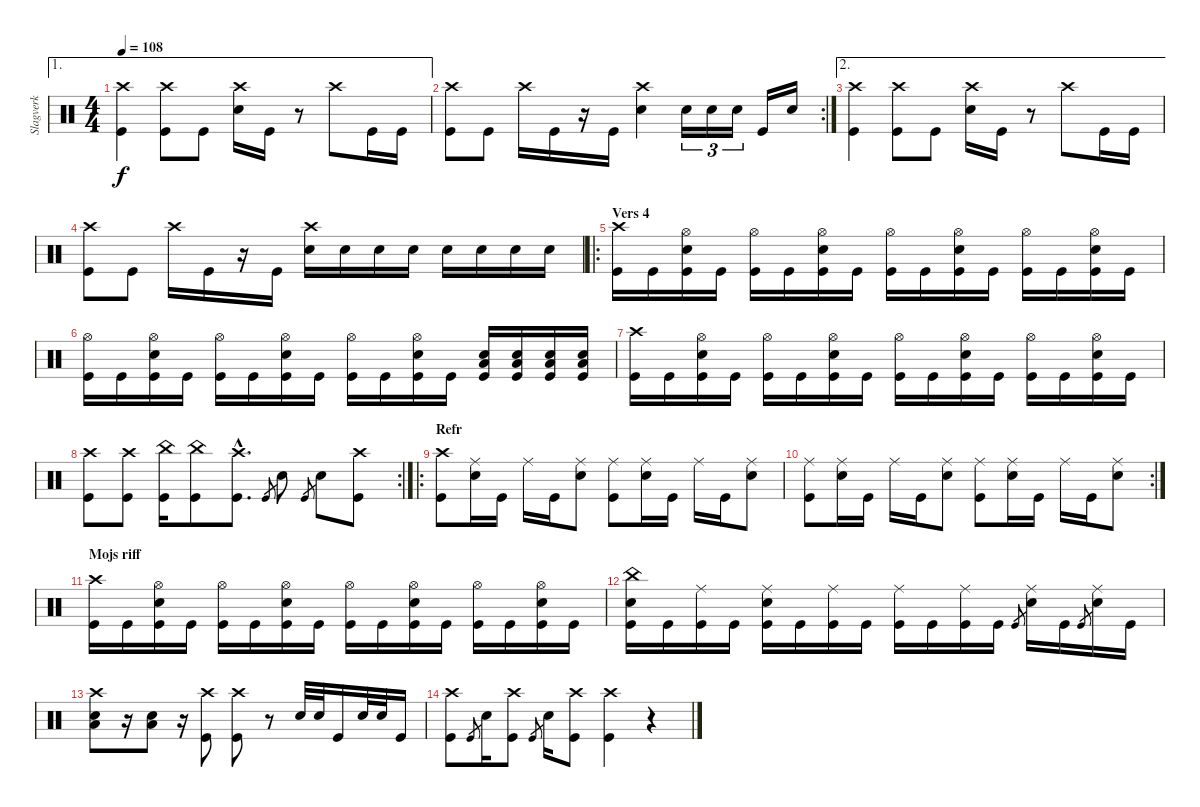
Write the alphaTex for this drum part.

\track ("Slagverk" "Slagverk") {instrument percussion}
\staff {score}
\articulation defaults
\ae 1
\ts (4 4)
\tempo 108
\clef neutral
\ks c
("Crash high (hit)" "Kick (hit)").4{dy f} ("Crash high (hit)" "Kick (hit)").8 "Kick (hit)".8 ("Crash high (hit)" "Electric Snare (hit)").16 "Kick (hit)".16 r.8 "Crash high (hit)".8 "Kick (hit)".16 "Kick (hit)".16 |
\rc 2
("Crash high (hit)" "Kick (hit)").8 "Kick (hit)".8 "Crash high (hit)".16 "Kick (hit)".16 r.16 "Kick (hit)".16 ("Crash high (hit)" "Electric Snare (hit)").4 "Electric Snare (hit)".16{tu (3 2)} "Electric Snare (hit)".16{tu (3 2)} "Electric Snare (hit)".16{tu (3 2)} "Kick (hit)".16 "Electric Snare (hit)".16 |
\ae 2
("Crash high (hit)" "Kick (hit)").4 ("Crash high (hit)" "Kick (hit)").8 "Kick (hit)".8 ("Crash high (hit)" "Electric Snare (hit)").16 "Kick (hit)".16 r.8 "Crash high (hit)".8 "Kick (hit)".16 "Kick (hit)".16 |
("Crash high (hit)" "Kick (hit)").8 "Kick (hit)".8 "Crash high (hit)".16 "Kick (hit)".16 r.16 "Kick (hit)".16 ("Crash high (hit)" "Electric Snare (hit)").16 "Electric Snare (hit)".16 "Electric Snare (hit)".16 "Electric Snare (hit)".16 "Electric Snare (hit)".16 "Electric Snare (hit)".16 "Electric Snare (hit)".16 "Electric Snare (hit)".16 |
\ro
\section ("" "Vers 4")
("Crash high (hit)" "Kick (hit)").16 "Kick (hit)".16 ("Hi-Hat (open)" "Electric Snare (hit)" "Kick (hit)").16 "Kick (hit)".16 ("Hi-Hat (open)" "Kick (hit)").16 "Kick (hit)".16 ("Hi-Hat (open)" "Electric Snare (hit)" "Kick (hit)").16 "Kick (hit)".16 ("Hi-Hat (open)" "Kick (hit)").16 "Kick (hit)".16 ("Hi-Hat (open)" "Electric Snare (hit)" "Kick (hit)").16 "Kick (hit)".16 ("Hi-Hat (open)" "Kick (hit)").16 "Kick (hit)".16 ("Hi-Hat (open)" "Electric Snare (hit)" "Kick (hit)").16 "Kick (hit)".16 |
("Hi-Hat (open)" "Kick (hit)").16 "Kick (hit)".16 ("Hi-Hat (open)" "Electric Snare (hit)" "Kick (hit)").16 "Kick (hit)".16 ("Hi-Hat (open)" "Kick (hit)").16 "Kick (hit)".16 ("Hi-Hat (open)" "Electric Snare (hit)" "Kick (hit)").16 "Kick (hit)".16 ("Hi-Hat (open)" "Kick (hit)").16 "Kick (hit)".16 ("Hi-Hat (open)" "Electric Snare (hit)" "Kick (hit)").16 "Kick (hit)".16 ("Electric Snare (hit)" "Low Floor Tom (hit)" "Kick (hit)").16 ("Electric Snare (hit)" "Low Floor Tom (hit)" "Kick (hit)").16 ("Electric Snare (hit)" "Low Floor Tom (hit)" "Kick (hit)").16 ("Electric Snare (hit)" "Low Floor Tom (hit)" "Kick (hit)").16 |
("Crash high (hit)" "Kick (hit)").16 "Kick (hit)".16 ("Hi-Hat (open)" "Electric Snare (hit)" "Kick (hit)").16 "Kick (hit)".16 ("Hi-Hat (open)" "Kick (hit)").16 "Kick (hit)".16 ("Hi-Hat (open)" "Electric Snare (hit)" "Kick (hit)").16 "Kick (hit)".16 ("Hi-Hat (open)" "Kick (hit)").16 "Kick (hit)".16 ("Hi-Hat (open)" "Electric Snare (hit)" "Kick (hit)").16 "Kick (hit)".16 ("Hi-Hat (open)" "Kick (hit)").16 "Kick (hit)".16 ("Hi-Hat (open)" "Electric Snare (hit)" "Kick (hit)").16 "Kick (hit)".16 |
\rc 2
("Crash high (hit)" "Kick (hit)").8 ("Crash high (hit)" "Kick (hit)").8 ("China (hit)" "Kick (hit)").16 ("China (hit)" "Kick (hit)").8 ("Crash high (hit)"{hac} "Kick (hit)"{hac}).8{d} "Kick (hit)"{sl}.8{gr} "Electric Snare (hit)".8 "Kick (hit)"{sl}.8{gr} "Electric Snare (hit)".8 ("Crash high (hit)" "Kick (hit)").8 |
\ro
\section ("" "Refr")
("Crash high (hit)" "Kick (hit)").8 ("Ride (middle)" "Electric Snare (hit)").16 "Kick (hit)".16 "Ride (middle)".16 "Kick (hit)".16 ("Ride (middle)" "Electric Snare (hit)").8 ("Ride (middle)" "Kick (hit)").8 ("Ride (middle)" "Electric Snare (hit)").16 "Kick (hit)".16 "Ride (middle)".16 "Kick (hit)".16 ("Ride (middle)" "Electric Snare (hit)").8 |
\rc 2
("Ride (middle)" "Kick (hit)").8 ("Ride (middle)" "Electric Snare (hit)").16 "Kick (hit)".16 "Ride (middle)".16 "Kick (hit)".16 ("Ride (middle)" "Electric Snare (hit)").8 ("Ride (middle)" "Kick (hit)").8 ("Ride (middle)" "Electric Snare (hit)").16 "Kick (hit)".16 "Ride (middle)".16 "Kick (hit)".16 ("Ride (middle)" "Electric Snare (hit)").8 |
\section ("" "Mojs riff")
("Crash high (hit)" "Kick (hit)").16 "Kick (hit)".16 ("Hi-Hat (open)" "Electric Snare (hit)" "Kick (hit)").16 "Kick (hit)".16 ("Hi-Hat (open)" "Kick (hit)").16 "Kick (hit)".16 ("Hi-Hat (open)" "Electric Snare (hit)" "Kick (hit)").16 "Kick (hit)".16 ("Hi-Hat (open)" "Kick (hit)").16 "Kick (hit)".16 ("Hi-Hat (open)" "Electric Snare (hit)" "Kick (hit)").16 "Kick (hit)".16 ("Hi-Hat (open)" "Kick (hit)").16 "Kick (hit)".16 ("Hi-Hat (open)" "Electric Snare (hit)" "Kick (hit)").16 "Kick (hit)".16 |
("China (hit)" "Electric Snare (hit)" "Kick (hit)").16 "Kick (hit)".16 ("Ride (middle)" "Kick (hit)").16 "Kick (hit)".16 ("Ride (middle)" "Electric Snare (hit)" "Kick (hit)").16 "Kick (hit)".16 ("Ride (middle)" "Kick (hit)").16 "Kick (hit)".16 ("Ride (middle)" "Kick (hit)").16 "Kick (hit)".16 ("Ride (middle)" "Kick (hit)").16 "Kick (hit)".16 "Kick (hit)"{sl}.8{gr} ("Ride (middle)" "Electric Snare (hit)").16 "Kick (hit)".16 "Kick (hit)"{sl}.8{gr} ("Ride (middle)" "Electric Snare (hit)").16 "Kick (hit)".16 |
("Crash high (hit)" "Low Floor Tom (hit)" "Electric Snare (hit)").8 r.16 ("Low Floor Tom (hit)" "Electric Snare (hit)").8 r.16 ("Crash high (hit)" "Kick (hit)").8 ("Crash high (hit)" "Kick (hit)").8 r.8 "Electric Snare (hit)".32 "Electric Snare (hit)".32 "Kick (hit)".16 "Electric Snare (hit)".32 "Electric Snare (hit)".32 "Kick (hit)".16 |
("Crash high (hit)" "Kick (hit)").8 "Kick (hit)"{sl}.8{gr} "Electric Snare (hit)".16 ("Crash high (hit)" "Kick (hit)").8 "Kick (hit)"{sl}.8{gr} "Electric Snare (hit)".16 ("Crash high (hit)" "Kick (hit)").8 ("Crash high (hit)" "Kick (hit)").4 r.4
